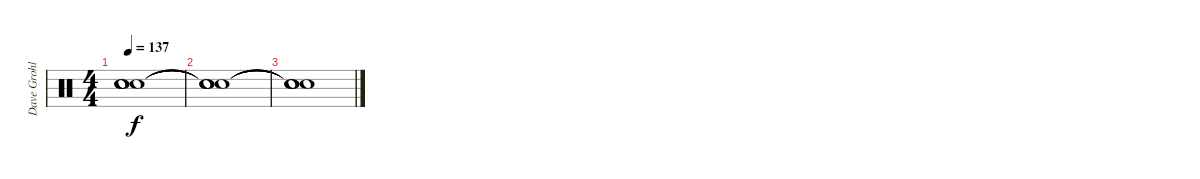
\track ("Dave Grohl" "Dave Grohl") {instrument percussion}
\staff {score}
\articulation defaults
\ts (4 4)
\tempo 137
\clef neutral
\ks c
("Snare (hit)"{t} "Snare (hit)"{t} "Snare (hit)"{t} "Snare (hit)"{t}).1{dy f} |
("Snare (hit)"{t} "Snare (hit)"{t} "Snare (hit)"{t} "Snare (hit)"{t}).1 |
("Snare (hit)"{t} "Snare (hit)"{t} "Snare (hit)"{t} "Snare (hit)"{t}).1
